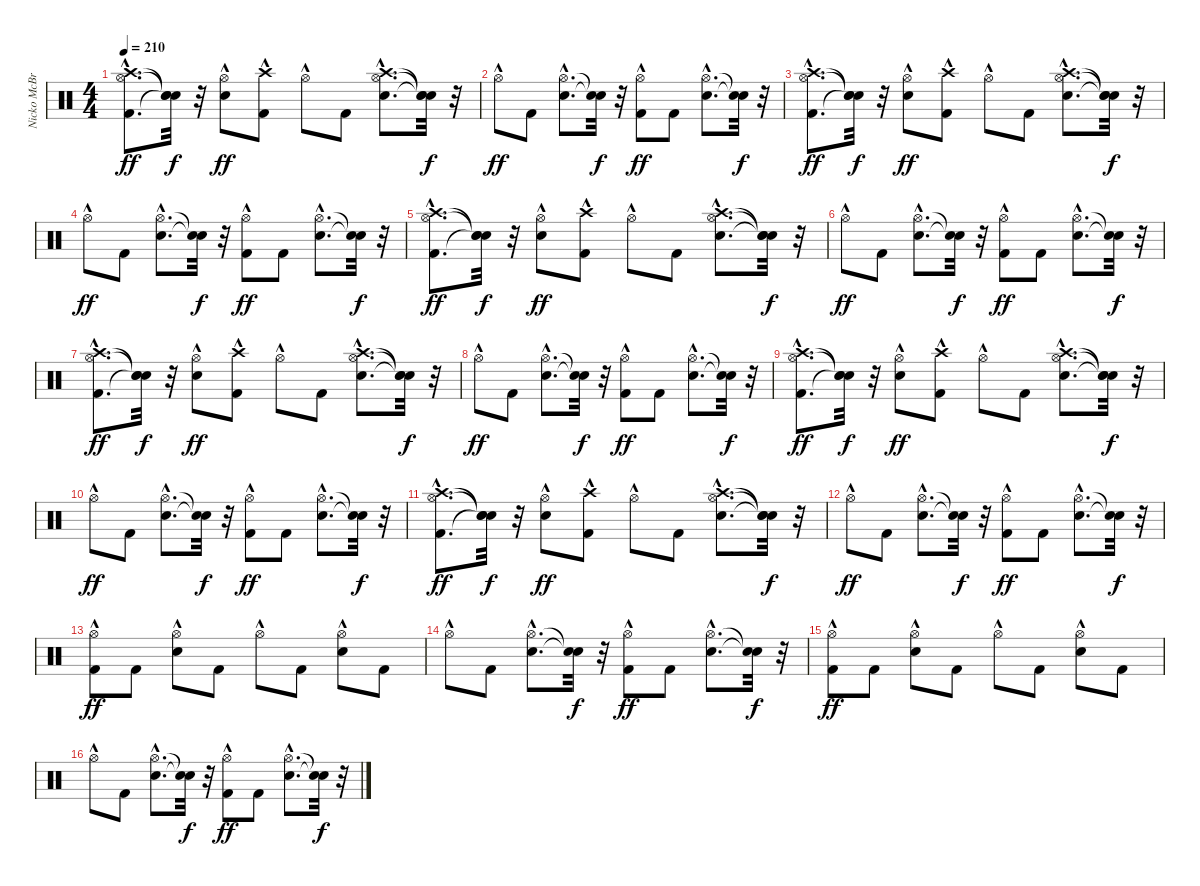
\track ("Nicko McBrain" "Nicko McBr") {instrument percussion}
\staff {score}
\articulation defaults
\ts (4 4)
\tempo 210
\clef neutral
\ks c
("Kick (hit) 2"{hac} "Hi-Hat (open)"{hac} "Crash high (hit)"{hac}).8{d dy ff} ("Snare (hit)"{t} "Snare (hit)"{t} "Snare (hit)"{t}).32{dy f} r.32 ("Snare (hit) 2" "Hi-Hat (open)"{hac}).8{dy ff} ("Kick (hit) 2" "Crash high (hit)"{hac}).8 "Hi-Hat (open)"{hac}.8 "Kick (hit) 2".8 ("Snare (hit) 2"{hac} "Hi-Hat (open)"{hac} "Crash high (hit)"{hac}).8{d} ("Snare (hit)"{t} "Snare (hit)"{t} "Snare (hit)"{t}).32{dy f} r.32 |
"Hi-Hat (open)"{hac}.8{dy ff} "Kick (hit) 2".8 ("Snare (hit) 2"{hac} "Hi-Hat (open)"{hac}).8{d} ("Snare (hit)"{t} "Snare (hit)"{t}).32{dy f} r.32 ("Kick (hit) 2" "Hi-Hat (open)"{hac}).8{dy ff} "Kick (hit) 2".8 ("Snare (hit) 2"{hac} "Hi-Hat (open)"{hac}).8{d} ("Snare (hit)"{t} "Snare (hit)"{t}).32{dy f} r.32 |
("Kick (hit) 2"{hac} "Hi-Hat (open)"{hac} "Crash high (hit)"{hac}).8{d dy ff} ("Snare (hit)"{t} "Snare (hit)"{t} "Snare (hit)"{t}).32{dy f} r.32 ("Snare (hit) 2" "Hi-Hat (open)"{hac}).8{dy ff} ("Kick (hit) 2" "Crash high (hit)"{hac}).8 "Hi-Hat (open)"{hac}.8 "Kick (hit) 2".8 ("Snare (hit) 2"{hac} "Hi-Hat (open)"{hac} "Crash high (hit)"{hac}).8{d} ("Snare (hit)"{t} "Snare (hit)"{t} "Snare (hit)"{t}).32{dy f} r.32 |
"Hi-Hat (open)"{hac}.8{dy ff} "Kick (hit) 2".8 ("Snare (hit) 2"{hac} "Hi-Hat (open)"{hac}).8{d} ("Snare (hit)"{t} "Snare (hit)"{t}).32{dy f} r.32 ("Kick (hit) 2" "Hi-Hat (open)"{hac}).8{dy ff} "Kick (hit) 2".8 ("Snare (hit) 2"{hac} "Hi-Hat (open)"{hac}).8{d} ("Snare (hit)"{t} "Snare (hit)"{t}).32{dy f} r.32 |
("Kick (hit) 2"{hac} "Hi-Hat (open)"{hac} "Crash high (hit)"{hac}).8{d dy ff} ("Snare (hit)"{t} "Snare (hit)"{t} "Snare (hit)"{t}).32{dy f} r.32 ("Snare (hit) 2" "Hi-Hat (open)"{hac}).8{dy ff} ("Kick (hit) 2" "Crash high (hit)"{hac}).8 "Hi-Hat (open)"{hac}.8 "Kick (hit) 2".8 ("Snare (hit) 2"{hac} "Hi-Hat (open)"{hac} "Crash high (hit)"{hac}).8{d} ("Snare (hit)"{t} "Snare (hit)"{t} "Snare (hit)"{t}).32{dy f} r.32 |
"Hi-Hat (open)"{hac}.8{dy ff} "Kick (hit) 2".8 ("Snare (hit) 2"{hac} "Hi-Hat (open)"{hac}).8{d} ("Snare (hit)"{t} "Snare (hit)"{t}).32{dy f} r.32 ("Kick (hit) 2" "Hi-Hat (open)"{hac}).8{dy ff} "Kick (hit) 2".8 ("Snare (hit) 2"{hac} "Hi-Hat (open)"{hac}).8{d} ("Snare (hit)"{t} "Snare (hit)"{t}).32{dy f} r.32 |
("Kick (hit) 2"{hac} "Hi-Hat (open)"{hac} "Crash high (hit)"{hac}).8{d dy ff} ("Snare (hit)"{t} "Snare (hit)"{t} "Snare (hit)"{t}).32{dy f} r.32 ("Snare (hit) 2" "Hi-Hat (open)"{hac}).8{dy ff} ("Kick (hit) 2" "Crash high (hit)"{hac}).8 "Hi-Hat (open)"{hac}.8 "Kick (hit) 2".8 ("Snare (hit) 2"{hac} "Hi-Hat (open)"{hac} "Crash high (hit)"{hac}).8{d} ("Snare (hit)"{t} "Snare (hit)"{t} "Snare (hit)"{t}).32{dy f} r.32 |
"Hi-Hat (open)"{hac}.8{dy ff} "Kick (hit) 2".8 ("Snare (hit) 2"{hac} "Hi-Hat (open)"{hac}).8{d} ("Snare (hit)"{t} "Snare (hit)"{t}).32{dy f} r.32 ("Kick (hit) 2" "Hi-Hat (open)"{hac}).8{dy ff} "Kick (hit) 2".8 ("Snare (hit) 2"{hac} "Hi-Hat (open)"{hac}).8{d} ("Snare (hit)"{t} "Snare (hit)"{t}).32{dy f} r.32 |
("Kick (hit) 2"{hac} "Hi-Hat (open)"{hac} "Crash high (hit)"{hac}).8{d dy ff} ("Snare (hit)"{t} "Snare (hit)"{t} "Snare (hit)"{t}).32{dy f} r.32 ("Snare (hit) 2" "Hi-Hat (open)"{hac}).8{dy ff} ("Kick (hit) 2" "Crash high (hit)"{hac}).8 "Hi-Hat (open)"{hac}.8 "Kick (hit) 2".8 ("Snare (hit) 2"{hac} "Hi-Hat (open)"{hac} "Crash high (hit)"{hac}).8{d} ("Snare (hit)"{t} "Snare (hit)"{t} "Snare (hit)"{t}).32{dy f} r.32 |
"Hi-Hat (open)"{hac}.8{dy ff} "Kick (hit) 2".8 ("Snare (hit) 2"{hac} "Hi-Hat (open)"{hac}).8{d} ("Snare (hit)"{t} "Snare (hit)"{t}).32{dy f} r.32 ("Kick (hit) 2" "Hi-Hat (open)"{hac}).8{dy ff} "Kick (hit) 2".8 ("Snare (hit) 2"{hac} "Hi-Hat (open)"{hac}).8{d} ("Snare (hit)"{t} "Snare (hit)"{t}).32{dy f} r.32 |
("Kick (hit) 2"{hac} "Hi-Hat (open)"{hac} "Crash high (hit)"{hac}).8{d dy ff} ("Snare (hit)"{t} "Snare (hit)"{t} "Snare (hit)"{t}).32{dy f} r.32 ("Snare (hit) 2" "Hi-Hat (open)"{hac}).8{dy ff} ("Kick (hit) 2" "Crash high (hit)"{hac}).8 "Hi-Hat (open)"{hac}.8 "Kick (hit) 2".8 ("Snare (hit) 2"{hac} "Hi-Hat (open)"{hac} "Crash high (hit)"{hac}).8{d} ("Snare (hit)"{t} "Snare (hit)"{t} "Snare (hit)"{t}).32{dy f} r.32 |
"Hi-Hat (open)"{hac}.8{dy ff} "Kick (hit) 2".8 ("Snare (hit) 2"{hac} "Hi-Hat (open)"{hac}).8{d} ("Snare (hit)"{t} "Snare (hit)"{t}).32{dy f} r.32 ("Kick (hit) 2" "Hi-Hat (open)"{hac}).8{dy ff} "Kick (hit) 2".8 ("Snare (hit) 2"{hac} "Hi-Hat (open)"{hac}).8{d} ("Snare (hit)"{t} "Snare (hit)"{t}).32{dy f} r.32 |
("Kick (hit) 2" "Hi-Hat (open)"{hac}).8{dy ff} "Kick (hit) 2".8 ("Snare (hit) 2" "Hi-Hat (open)"{hac}).8 "Kick (hit) 2".8 "Hi-Hat (open)"{hac}.8 "Kick (hit) 2".8 ("Snare (hit) 2" "Hi-Hat (open)"{hac}).8 "Kick (hit) 2".8 |
"Hi-Hat (open)"{hac}.8 "Kick (hit) 2".8 ("Snare (hit) 2"{hac} "Hi-Hat (open)"{hac}).8{d} ("Snare (hit)"{t} "Snare (hit)"{t}).32{dy f} r.32 ("Kick (hit) 2" "Hi-Hat (open)"{hac}).8{dy ff} "Kick (hit) 2".8 ("Snare (hit) 2"{hac} "Hi-Hat (open)"{hac}).8{d} ("Snare (hit)"{t} "Snare (hit)"{t}).32{dy f} r.32 |
("Kick (hit) 2" "Hi-Hat (open)"{hac}).8{dy ff} "Kick (hit) 2".8 ("Snare (hit) 2" "Hi-Hat (open)"{hac}).8 "Kick (hit) 2".8 "Hi-Hat (open)"{hac}.8 "Kick (hit) 2".8 ("Snare (hit) 2" "Hi-Hat (open)"{hac}).8 "Kick (hit) 2".8 |
"Hi-Hat (open)"{hac}.8 "Kick (hit) 2".8 ("Snare (hit) 2"{hac} "Hi-Hat (open)"{hac}).8{d} ("Snare (hit)"{t} "Snare (hit)"{t}).32{dy f} r.32 ("Kick (hit) 2" "Hi-Hat (open)"{hac}).8{dy ff} "Kick (hit) 2".8 ("Snare (hit) 2"{hac} "Hi-Hat (open)"{hac}).8{d} ("Snare (hit)"{t} "Snare (hit)"{t}).32{dy f} r.32
